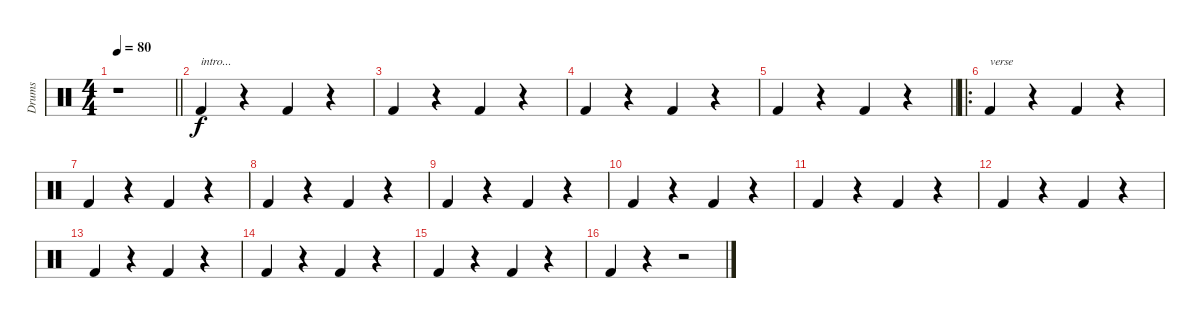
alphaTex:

\track ("Drums" "Drums") {instrument percussion}
\staff {score}
\articulation defaults
\ts (4 4)
\tempo 80
\clef neutral
\barLineRight lightlight
\ks c
r.1{dy f} |
"Kick (hit) 2".4{txt "intro..."} r.4 "Kick (hit) 2".4 r.4 |
"Kick (hit) 2".4 r.4 "Kick (hit) 2".4 r.4 |
"Kick (hit) 2".4 r.4 "Kick (hit) 2".4 r.4 |
\barLineRight lightlight "Kick (hit) 2".4
r.4 "Kick (hit) 2".4 r.4 |
\ro "Kick (hit) 2".4{txt "verse"}
r.4 "Kick (hit) 2".4 r.4 |
"Kick (hit) 2".4 r.4 "Kick (hit) 2".4 r.4 |
"Kick (hit) 2".4 r.4 "Kick (hit) 2".4 r.4 |
"Kick (hit) 2".4 r.4 "Kick (hit) 2".4 r.4 |
"Kick (hit) 2".4 r.4 "Kick (hit) 2".4 r.4 |
"Kick (hit) 2".4 r.4 "Kick (hit) 2".4 r.4 |
"Kick (hit) 2".4 r.4 "Kick (hit) 2".4 r.4 |
"Kick (hit) 2".4 r.4 "Kick (hit) 2".4 r.4 |
"Kick (hit) 2".4 r.4 "Kick (hit) 2".4 r.4 |
"Kick (hit) 2".4 r.4 "Kick (hit) 2".4 r.4 |
"Kick (hit) 2".4 r.4 r.2
